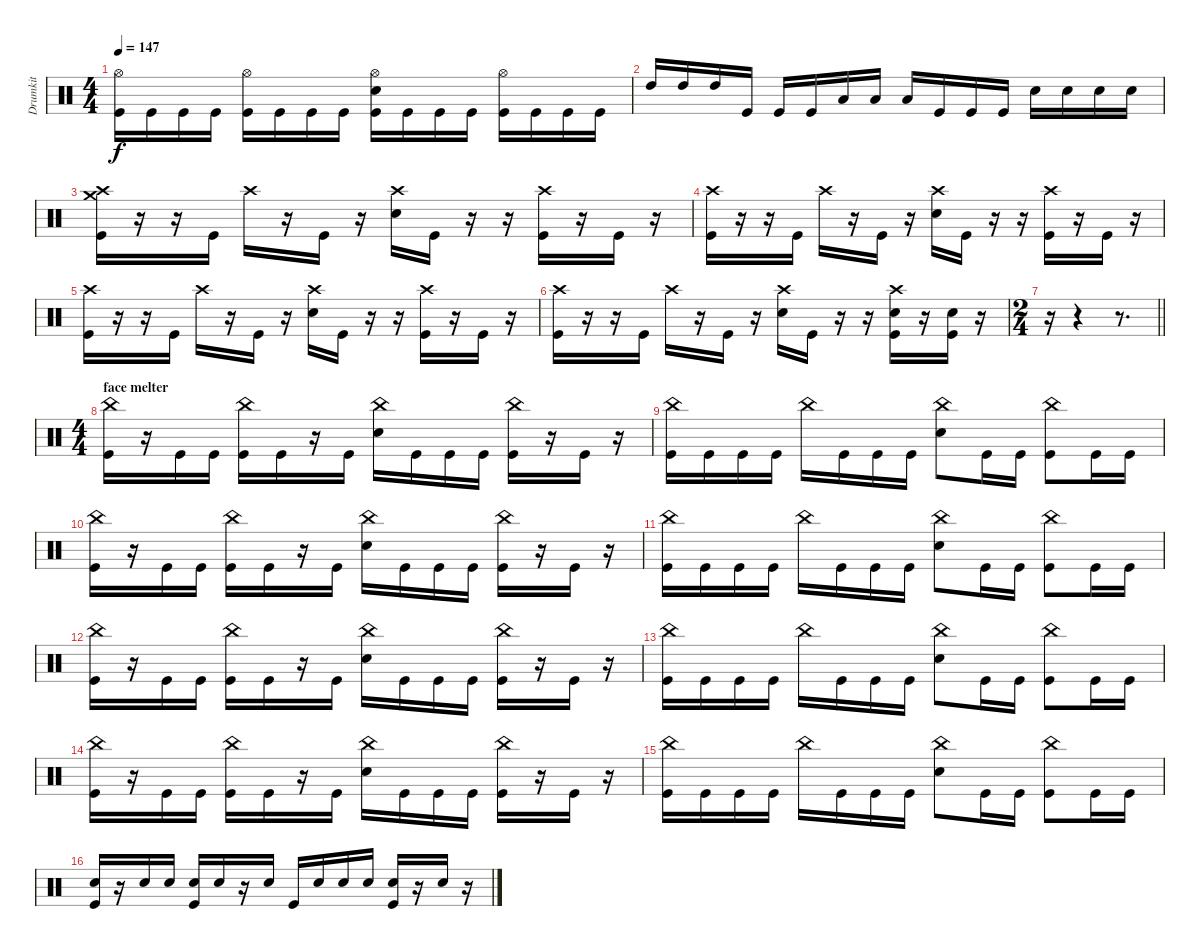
\track ("Drumkit" "Drumkit") {instrument percussion}
\staff {score}
\articulation defaults
\ts (4 4)
\tempo 147
\clef neutral
\ks c
("Hi-Hat (open)" "Kick (hit)").16{dy f} "Kick (hit)".16 "Kick (hit)".16 "Kick (hit)".16 ("Hi-Hat (open)" "Kick (hit)").16 "Kick (hit)".16 "Kick (hit)".16 "Kick (hit)".16 ("Hi-Hat (open)" "Snare (hit) 2" "Kick (hit)").16 "Kick (hit)".16 "Kick (hit)".16 "Kick (hit)".16 ("Hi-Hat (open)" "Kick (hit)").16 "Kick (hit)".16 "Kick (hit)".16 "Kick (hit)".16 |
"High Tom (hit)".16 "High Tom (hit)".16 "High Tom (hit)".16 "Kick (hit)".16 "Kick (hit)".16 "Kick (hit)".16 "Low Tom (hit)".16 "Low Tom (hit)".16 "Low Tom (hit)".16 "Kick (hit)".16 "Kick (hit)".16 "Kick (hit)".16 "Snare (hit) 2".16 "Snare (hit) 2".16 "Snare (hit) 2".16 "Snare (hit) 2".16 |
("Crash medium (hit)" "Crash high (hit)" "Kick (hit)").16 r.16 r.16 "Kick (hit)".16 "Crash high (hit)".16 r.16 "Kick (hit)".16 r.16 ("Crash high (hit)" "Snare (hit) 2").16 "Kick (hit)".16 r.16 r.16 ("Crash high (hit)" "Kick (hit)").16 r.16 "Kick (hit)".16 r.16 |
("Crash high (hit)" "Kick (hit)").16 r.16 r.16 "Kick (hit)".16 "Crash high (hit)".16 r.16 "Kick (hit)".16 r.16 ("Crash high (hit)" "Snare (hit) 2").16 "Kick (hit)".16 r.16 r.16 ("Crash high (hit)" "Kick (hit)").16 r.16 "Kick (hit)".16 r.16 |
("Crash high (hit)" "Kick (hit)").16 r.16 r.16 "Kick (hit)".16 "Crash high (hit)".16 r.16 "Kick (hit)".16 r.16 ("Crash high (hit)" "Snare (hit) 2").16 "Kick (hit)".16 r.16 r.16 ("Crash high (hit)" "Kick (hit)").16 r.16 "Kick (hit)".16 r.16 |
("Crash high (hit)" "Kick (hit)").16 r.16 r.16 "Kick (hit)".16 "Crash high (hit)".16 r.16 "Kick (hit)".16 r.16 ("Crash high (hit)" "Snare (hit) 2").16 "Kick (hit)".16 r.16 r.16 ("Crash high (hit)" "Snare (hit) 2" "Kick (hit)").16 r.16 ("Snare (hit) 2" "Kick (hit)").16 r.16 |
\ts (2 4)
\barLineRight lightlight
r.16 r.4 r.8{d} |
\ts (4 4)
\section ("" "face melter")
("China (hit)" "Kick (hit)").16 r.16 "Kick (hit)".16 "Kick (hit)".16 ("China (hit)" "Kick (hit)").16 "Kick (hit)".16 r.16 "Kick (hit)".16 ("China (hit)" "Snare (hit) 2").16 "Kick (hit)".16 "Kick (hit)".16 "Kick (hit)".16 ("China (hit)" "Kick (hit)").16 r.16 "Kick (hit)".16 r.16 |
("China (hit)" "Kick (hit)").16 "Kick (hit)".16 "Kick (hit)".16 "Kick (hit)".16 "China (hit)".16 "Kick (hit)".16 "Kick (hit)".16 "Kick (hit)".16 ("China (hit)" "Snare (hit) 2").8 "Kick (hit)".16 "Kick (hit)".16 ("China (hit)" "Kick (hit)").8 "Kick (hit)".16 "Kick (hit)".16 |
("China (hit)" "Kick (hit)").16 r.16 "Kick (hit)".16 "Kick (hit)".16 ("China (hit)" "Kick (hit)").16 "Kick (hit)".16 r.16 "Kick (hit)".16 ("China (hit)" "Snare (hit) 2").16 "Kick (hit)".16 "Kick (hit)".16 "Kick (hit)".16 ("China (hit)" "Kick (hit)").16 r.16 "Kick (hit)".16 r.16 |
("China (hit)" "Kick (hit)").16 "Kick (hit)".16 "Kick (hit)".16 "Kick (hit)".16 "China (hit)".16 "Kick (hit)".16 "Kick (hit)".16 "Kick (hit)".16 ("China (hit)" "Snare (hit) 2").8 "Kick (hit)".16 "Kick (hit)".16 ("China (hit)" "Kick (hit)").8 "Kick (hit)".16 "Kick (hit)".16 |
("China (hit)" "Kick (hit)").16 r.16 "Kick (hit)".16 "Kick (hit)".16 ("China (hit)" "Kick (hit)").16 "Kick (hit)".16 r.16 "Kick (hit)".16 ("China (hit)" "Snare (hit) 2").16 "Kick (hit)".16 "Kick (hit)".16 "Kick (hit)".16 ("China (hit)" "Kick (hit)").16 r.16 "Kick (hit)".16 r.16 |
("China (hit)" "Kick (hit)").16 "Kick (hit)".16 "Kick (hit)".16 "Kick (hit)".16 "China (hit)".16 "Kick (hit)".16 "Kick (hit)".16 "Kick (hit)".16 ("China (hit)" "Snare (hit) 2").8 "Kick (hit)".16 "Kick (hit)".16 ("China (hit)" "Kick (hit)").8 "Kick (hit)".16 "Kick (hit)".16 |
("China (hit)" "Kick (hit)").16 r.16 "Kick (hit)".16 "Kick (hit)".16 ("China (hit)" "Kick (hit)").16 "Kick (hit)".16 r.16 "Kick (hit)".16 ("China (hit)" "Snare (hit) 2").16 "Kick (hit)".16 "Kick (hit)".16 "Kick (hit)".16 ("China (hit)" "Kick (hit)").16 r.16 "Kick (hit)".16 r.16 |
("China (hit)" "Kick (hit)").16 "Kick (hit)".16 "Kick (hit)".16 "Kick (hit)".16 "China (hit)".16 "Kick (hit)".16 "Kick (hit)".16 "Kick (hit)".16 ("China (hit)" "Snare (hit) 2").8 "Kick (hit)".16 "Kick (hit)".16 ("China (hit)" "Kick (hit)").8 "Kick (hit)".16 "Kick (hit)".16 |
("Snare (hit) 2" "Kick (hit)").16 r.16 "Snare (hit) 2".16 "Snare (hit) 2".16 ("Snare (hit) 2" "Kick (hit)").16 "Snare (hit) 2".16 r.16 "Snare (hit) 2".16 "Kick (hit)".16 "Snare (hit) 2".16 "Snare (hit) 2".16 "Snare (hit) 2".16 ("Snare (hit) 2" "Kick (hit)").16 r.16 "Snare (hit) 2".16 r.16
